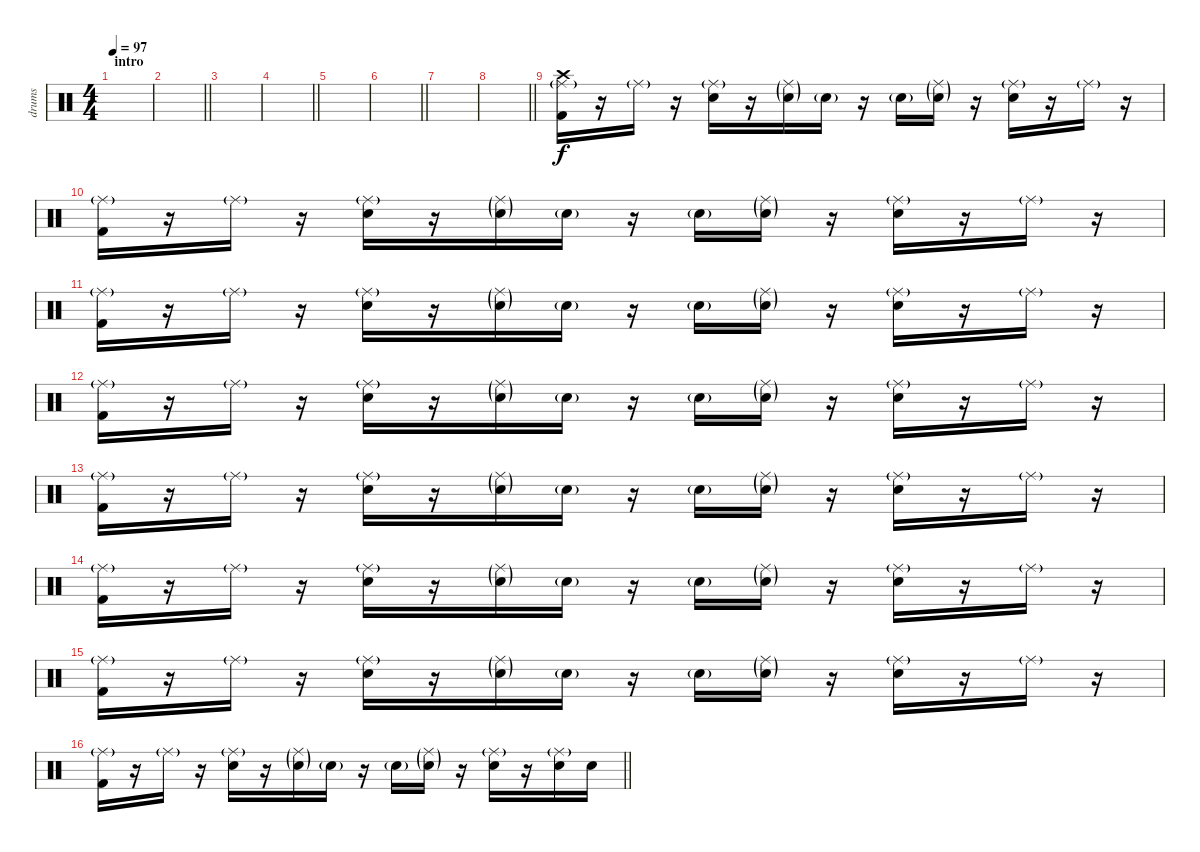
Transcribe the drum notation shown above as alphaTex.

\track ("drums" "drums") {instrument percussion}
\staff {score}
\articulation defaults
\ts (4 4)
\section ("" "intro")
\tempo 97
\clef neutral
\ks c
|
\barLineRight lightlight
|
|
\barLineRight lightlight
|
|
\barLineRight lightlight
|
|
\barLineRight lightlight
|
("Kick (hit) 2" "Ride (middle)"{g} "Crash high (hit)").16 r.16 "Ride (middle)"{g}.16 r.16 ("Electric Snare (hit)" "Ride (middle)"{g}).16 r.16 ("Electric Snare (hit)"{g} "Ride (middle)"{g}).16 "Electric Snare (hit)"{g}.16 r.16 "Electric Snare (hit)"{g}.16 ("Electric Snare (hit)"{g} "Ride (middle)"{g}).16 r.16 ("Electric Snare (hit)" "Ride (middle)"{g}).16 r.16 "Ride (middle)"{g}.16 r.16 |
("Kick (hit) 2" "Ride (middle)"{g}).16 r.16 "Ride (middle)"{g}.16 r.16 ("Electric Snare (hit)" "Ride (middle)"{g}).16 r.16 ("Electric Snare (hit)"{g} "Ride (middle)"{g}).16 "Electric Snare (hit)"{g}.16 r.16 "Electric Snare (hit)"{g}.16 ("Electric Snare (hit)"{g} "Ride (middle)"{g}).16 r.16 ("Electric Snare (hit)" "Ride (middle)"{g}).16 r.16 "Ride (middle)"{g}.16 r.16 |
("Kick (hit) 2" "Ride (middle)"{g}).16 r.16 "Ride (middle)"{g}.16 r.16 ("Electric Snare (hit)" "Ride (middle)"{g}).16 r.16 ("Electric Snare (hit)"{g} "Ride (middle)"{g}).16 "Electric Snare (hit)"{g}.16 r.16 "Electric Snare (hit)"{g}.16 ("Electric Snare (hit)"{g} "Ride (middle)"{g}).16 r.16 ("Electric Snare (hit)" "Ride (middle)"{g}).16 r.16 "Ride (middle)"{g}.16 r.16 |
("Kick (hit) 2" "Ride (middle)"{g}).16 r.16 "Ride (middle)"{g}.16 r.16 ("Electric Snare (hit)" "Ride (middle)"{g}).16 r.16 ("Electric Snare (hit)"{g} "Ride (middle)"{g}).16 "Electric Snare (hit)"{g}.16 r.16 "Electric Snare (hit)"{g}.16 ("Electric Snare (hit)"{g} "Ride (middle)"{g}).16 r.16 ("Electric Snare (hit)" "Ride (middle)"{g}).16 r.16 "Ride (middle)"{g}.16 r.16 |
("Kick (hit) 2" "Ride (middle)"{g}).16 r.16 "Ride (middle)"{g}.16 r.16 ("Electric Snare (hit)" "Ride (middle)"{g}).16 r.16 ("Electric Snare (hit)"{g} "Ride (middle)"{g}).16 "Electric Snare (hit)"{g}.16 r.16 "Electric Snare (hit)"{g}.16 ("Electric Snare (hit)"{g} "Ride (middle)"{g}).16 r.16 ("Electric Snare (hit)" "Ride (middle)"{g}).16 r.16 "Ride (middle)"{g}.16 r.16 |
("Kick (hit) 2" "Ride (middle)"{g}).16 r.16 "Ride (middle)"{g}.16 r.16 ("Electric Snare (hit)" "Ride (middle)"{g}).16 r.16 ("Electric Snare (hit)"{g} "Ride (middle)"{g}).16 "Electric Snare (hit)"{g}.16 r.16 "Electric Snare (hit)"{g}.16 ("Electric Snare (hit)"{g} "Ride (middle)"{g}).16 r.16 ("Electric Snare (hit)" "Ride (middle)"{g}).16 r.16 "Ride (middle)"{g}.16 r.16 |
("Kick (hit) 2" "Ride (middle)"{g}).16 r.16 "Ride (middle)"{g}.16 r.16 ("Electric Snare (hit)" "Ride (middle)"{g}).16 r.16 ("Electric Snare (hit)"{g} "Ride (middle)"{g}).16 "Electric Snare (hit)"{g}.16 r.16 "Electric Snare (hit)"{g}.16 ("Electric Snare (hit)"{g} "Ride (middle)"{g}).16 r.16 ("Electric Snare (hit)" "Ride (middle)"{g}).16 r.16 "Ride (middle)"{g}.16 r.16 |
\barLineRight lightlight
("Kick (hit) 2" "Ride (middle)"{g}).16 r.16 "Ride (middle)"{g}.16 r.16 ("Electric Snare (hit)" "Ride (middle)"{g}).16 r.16 ("Electric Snare (hit)"{g} "Ride (middle)"{g}).16 "Electric Snare (hit)"{g}.16 r.16 "Electric Snare (hit)"{g}.16 ("Electric Snare (hit)"{g} "Ride (middle)"{g}).16 r.16 ("Electric Snare (hit)" "Ride (middle)"{g}).16 r.16 ("Electric Snare (hit)" "Ride (middle)"{g}).16 "Electric Snare (hit)".16{dy f}
